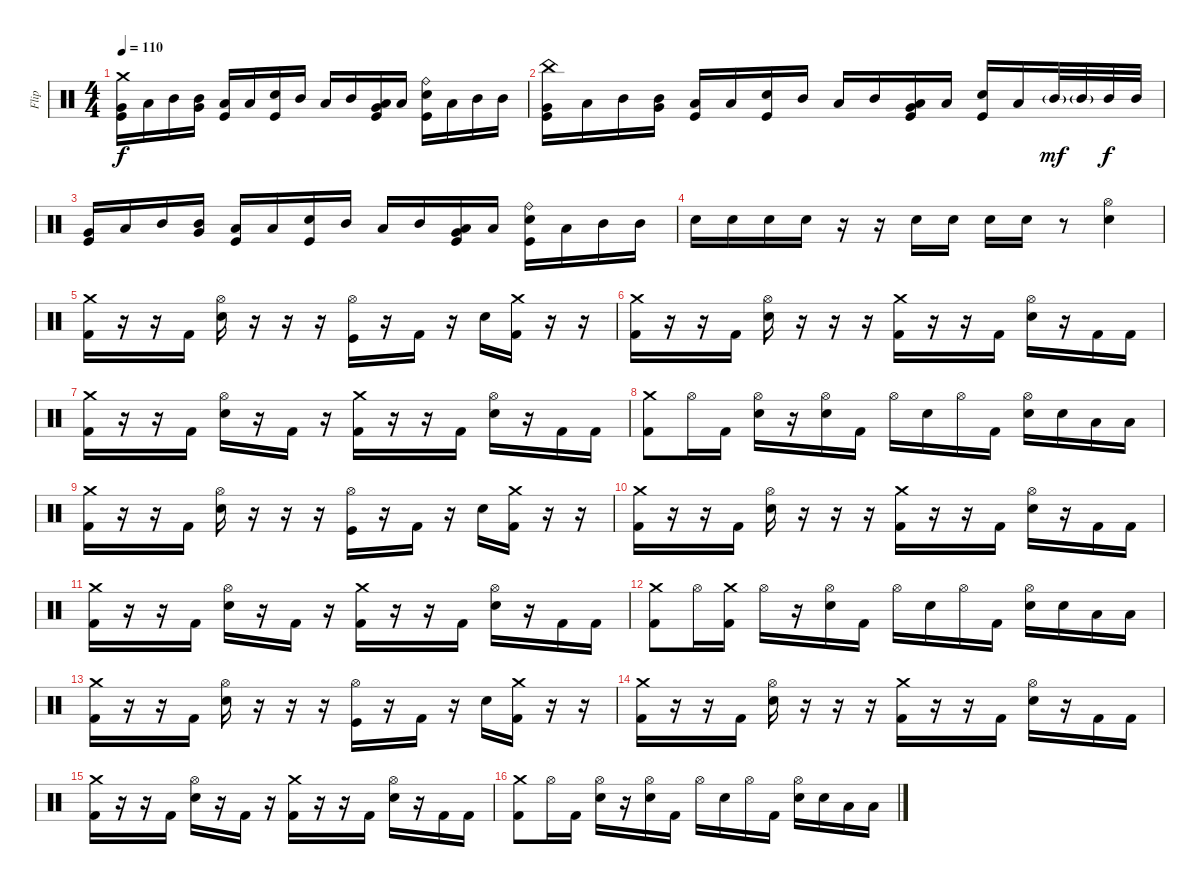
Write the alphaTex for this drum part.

\track ("Flip" "Flip") {instrument percussion}
\staff {score}
\articulation defaults
\ts (4 4)
\tempo 110
\clef neutral
\ks c
("Crash medium (hit)" "Very Low Tom (hit)" "Kick (hit)").16{dy f} "Low Tom (hit)".16 "Mid Tom (hit)".16 ("Very Low Tom (hit)" "Mid Tom (hit)").16 ("Low Tom (hit)" "Kick (hit)").16 "Low Tom (hit)".16 ("Snare (hit) 2" "Kick (hit)").16 "Mid Tom (hit)".16 "Low Tom (hit)".16 "Mid Tom (hit)".16 ("Very Low Tom (hit)" "Low Tom (hit)" "Kick (hit)").16 "Low Tom (hit)".16 ("Ride (bell)" "Snare (hit) 2" "Kick (hit)").16 "Low Tom (hit)".16 "Mid Tom (hit)".16 "Mid Tom (hit)".16 |
("China (hit)" "Very Low Tom (hit)" "Kick (hit)").16 "Low Tom (hit)".16 "Mid Tom (hit)".16 ("Very Low Tom (hit)" "Mid Tom (hit)").16 ("Low Tom (hit)" "Kick (hit)").16 "Low Tom (hit)".16 ("Snare (hit) 2" "Kick (hit)").16 "Mid Tom (hit)".16 "Low Tom (hit)".16 "Mid Tom (hit)".16 ("Very Low Tom (hit)" "Low Tom (hit)" "Kick (hit)").16 "Low Tom (hit)".16 ("Snare (hit) 2" "Kick (hit)").16 "Low Tom (hit)".16 "Mid Tom (hit)"{g}.32{dy mf} "Mid Tom (hit)"{g}.32 "Mid Tom (hit)".32{dy f} "Mid Tom (hit)".32 |
("Very Low Tom (hit)" "Kick (hit)").16 "Low Tom (hit)".16 "Mid Tom (hit)".16 ("Very Low Tom (hit)" "Mid Tom (hit)").16 ("Low Tom (hit)" "Kick (hit)").16 "Low Tom (hit)".16 ("Snare (hit) 2" "Kick (hit)").16 "Mid Tom (hit)".16 "Low Tom (hit)".16 "Mid Tom (hit)".16 ("Very Low Tom (hit)" "Low Tom (hit)" "Kick (hit)").16 "Low Tom (hit)".16 ("Ride (bell)" "Snare (hit) 2" "Kick (hit)").16 "Low Tom (hit)".16 "Mid Tom (hit)".16 "Mid Tom (hit)".16 |
"Snare (hit) 2".16 "Snare (hit) 2".16 "Snare (hit) 2".16 "Snare (hit) 2".16 r.16 r.16 "Snare (hit) 2".16 "Snare (hit) 2".16 "Snare (hit) 2".16 "Snare (hit) 2".16 r.8 ("Hi-Hat (open)" "Snare (hit) 2").4 |
("Crash medium (hit)" "Kick (hit) 2").16 r.16 r.16 "Kick (hit) 2".16 ("Hi-Hat (open)" "Snare (hit) 2").16 r.16 r.16 r.16 ("Hi-Hat (open)" "Kick (hit)").16 r.16 "Kick (hit) 2".16 r.16 "Snare (hit) 2".16 ("Crash medium (hit)" "Kick (hit) 2").16 r.16 r.16 |
("Crash medium (hit)" "Kick (hit) 2").16 r.16 r.16 "Kick (hit) 2".16 ("Hi-Hat (open)" "Snare (hit) 2").16 r.16 r.16 r.16 ("Crash medium (hit)" "Kick (hit) 2").16 r.16 r.16 "Kick (hit) 2".16 ("Hi-Hat (open)" "Snare (hit) 2").16 r.16 "Kick (hit) 2".16 "Kick (hit) 2".16 |
("Crash medium (hit)" "Kick (hit) 2").16 r.16 r.16 "Kick (hit) 2".16 ("Hi-Hat (open)" "Snare (hit) 2").16 r.16 "Kick (hit) 2".16 r.16 ("Crash medium (hit)" "Kick (hit) 2").16 r.16 r.16 "Kick (hit) 2".16 ("Hi-Hat (open)" "Snare (hit) 2").16 r.16 "Kick (hit) 2".16 "Kick (hit) 2".16 |
("Crash medium (hit)" "Kick (hit) 2").8 "Hi-Hat (open)".16 "Kick (hit) 2".16 ("Hi-Hat (open)" "Snare (hit) 2").16 r.16 ("Hi-Hat (open)" "Snare (hit) 2").16 "Kick (hit) 2".16 "Hi-Hat (open)".16 "Snare (hit) 2".16 "Hi-Hat (open)".16 "Kick (hit) 2".16 ("Hi-Hat (open)" "Snare (hit) 2").16 "Snare (hit) 2".16 "Low Tom (hit)".16 "Low Tom (hit)".16 |
("Crash medium (hit)" "Kick (hit) 2").16 r.16 r.16 "Kick (hit) 2".16 ("Hi-Hat (open)" "Snare (hit) 2").16 r.16 r.16 r.16 ("Hi-Hat (open)" "Kick (hit)").16 r.16 "Kick (hit) 2".16 r.16 "Snare (hit) 2".16 ("Crash medium (hit)" "Kick (hit) 2").16 r.16 r.16 |
("Crash medium (hit)" "Kick (hit) 2").16 r.16 r.16 "Kick (hit) 2".16 ("Hi-Hat (open)" "Snare (hit) 2").16 r.16 r.16 r.16 ("Crash medium (hit)" "Kick (hit) 2").16 r.16 r.16 "Kick (hit) 2".16 ("Hi-Hat (open)" "Snare (hit) 2").16 r.16 "Kick (hit) 2".16 "Kick (hit) 2".16 |
("Crash medium (hit)" "Kick (hit) 2").16 r.16 r.16 "Kick (hit) 2".16 ("Hi-Hat (open)" "Snare (hit) 2").16 r.16 "Kick (hit) 2".16 r.16 ("Crash medium (hit)" "Kick (hit) 2").16 r.16 r.16 "Kick (hit) 2".16 ("Hi-Hat (open)" "Snare (hit) 2").16 r.16 "Kick (hit) 2".16 "Kick (hit) 2".16 |
("Crash medium (hit)" "Kick (hit) 2").8 "Hi-Hat (open)".16 ("Crash medium (hit)" "Kick (hit) 2").16 "Hi-Hat (open)".16 r.16 ("Hi-Hat (open)" "Snare (hit) 2").16 "Kick (hit) 2".16 "Hi-Hat (open)".16 "Snare (hit) 2".16 "Hi-Hat (open)".16 "Kick (hit) 2".16 ("Hi-Hat (open)" "Snare (hit) 2").16 "Snare (hit) 2".16 "Low Tom (hit)".16 "Low Tom (hit)".16 |
("Crash medium (hit)" "Kick (hit) 2").16 r.16 r.16 "Kick (hit) 2".16 ("Hi-Hat (open)" "Snare (hit) 2").16 r.16 r.16 r.16 ("Hi-Hat (open)" "Kick (hit)").16 r.16 "Kick (hit) 2".16 r.16 "Snare (hit) 2".16 ("Crash medium (hit)" "Kick (hit) 2").16 r.16 r.16 |
("Crash medium (hit)" "Kick (hit) 2").16 r.16 r.16 "Kick (hit) 2".16 ("Hi-Hat (open)" "Snare (hit) 2").16 r.16 r.16 r.16 ("Crash medium (hit)" "Kick (hit) 2").16 r.16 r.16 "Kick (hit) 2".16 ("Hi-Hat (open)" "Snare (hit) 2").16 r.16 "Kick (hit) 2".16 "Kick (hit) 2".16 |
("Crash medium (hit)" "Kick (hit) 2").16 r.16 r.16 "Kick (hit) 2".16 ("Hi-Hat (open)" "Snare (hit) 2").16 r.16 "Kick (hit) 2".16 r.16 ("Crash medium (hit)" "Kick (hit) 2").16 r.16 r.16 "Kick (hit) 2".16 ("Hi-Hat (open)" "Snare (hit) 2").16 r.16 "Kick (hit) 2".16 "Kick (hit) 2".16 |
("Crash medium (hit)" "Kick (hit) 2").8 "Hi-Hat (open)".16 "Kick (hit) 2".16 ("Hi-Hat (open)" "Snare (hit) 2").16 r.16 ("Hi-Hat (open)" "Snare (hit) 2").16 "Kick (hit) 2".16 "Hi-Hat (open)".16 "Snare (hit) 2".16 "Hi-Hat (open)".16 "Kick (hit) 2".16 ("Hi-Hat (open)" "Snare (hit) 2").16 "Snare (hit) 2".16 "Low Tom (hit)".16 "Low Tom (hit)".16
